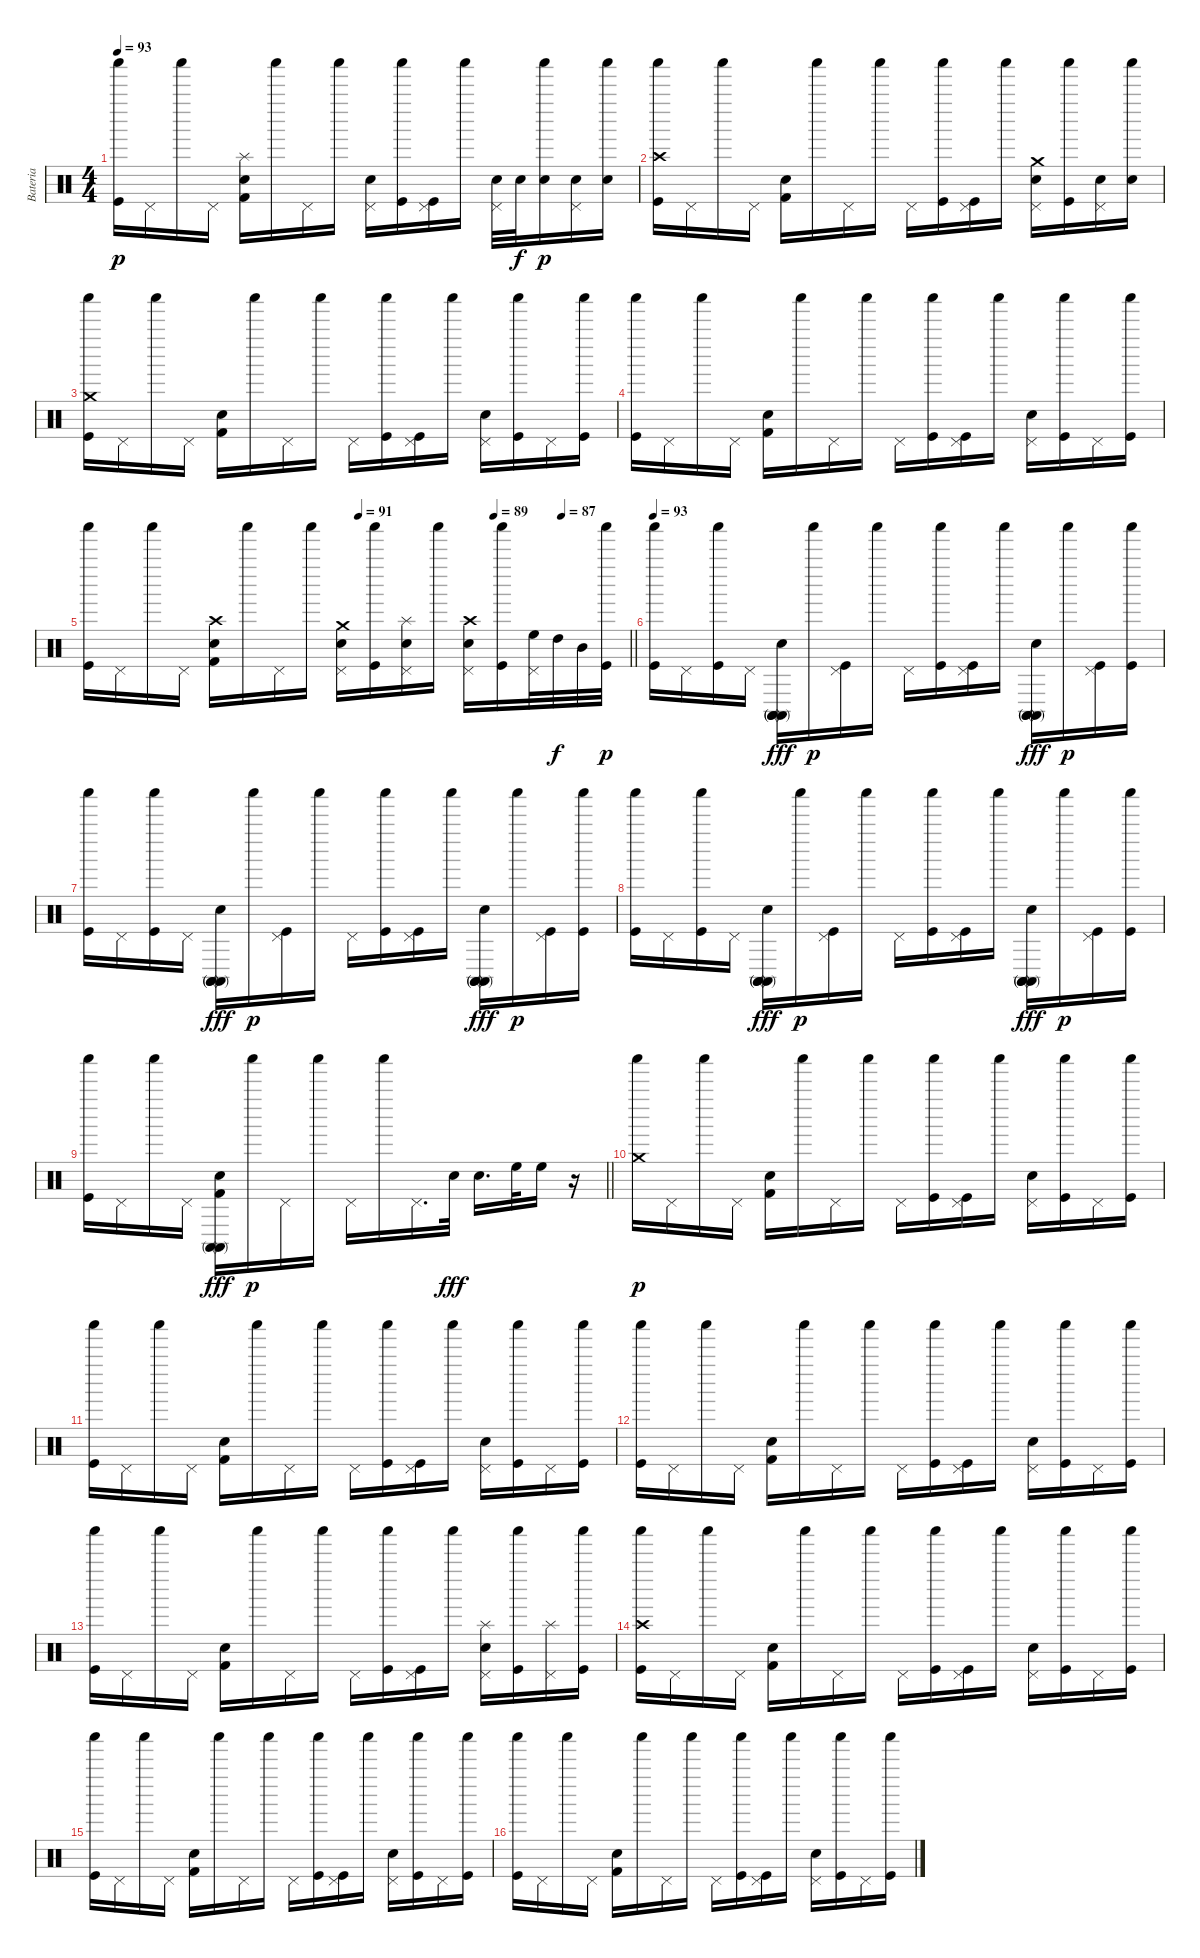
\track ("Bateria" "Bateria") {instrument percussion}
\staff {score}
\articulation defaults
\ts (4 4)
\tempo 93
\clef neutral
\ks c
("Kick (hit)" "Shaker (hit)").16{dy p} "Pedal Hi-Hat (hit)".16 "Shaker (hit)".16 "Pedal Hi-Hat (hit)".16 ("Electric Snare (hit)" "Kick (hit) 2" "Splash (hit)").16 "Shaker (hit)".16 "Pedal Hi-Hat (hit)".16 "Shaker (hit)".16 ("Electric Snare (hit)" "Pedal Hi-Hat (hit)").16 ("Kick (hit)" "Shaker (hit)").16 ("Kick (hit)" "Pedal Hi-Hat (hit)").16 "Shaker (hit)".16 ("Electric Snare (hit)" "Pedal Hi-Hat (hit)").32 "Electric Snare (hit)".32{dy f} ("Electric Snare (hit)" "Shaker (hit)").16{dy p} ("Electric Snare (hit)" "Pedal Hi-Hat (hit)").16 ("Electric Snare (hit)" "Shaker (hit)").16 |
("Kick (hit)" "Shaker (hit)" "Crash high (hit)").16 "Pedal Hi-Hat (hit)".16 "Shaker (hit)".16 "Pedal Hi-Hat (hit)".16 ("Electric Snare (hit)" "Kick (hit) 2").16 "Shaker (hit)".16 "Pedal Hi-Hat (hit)".16 "Shaker (hit)".16 "Pedal Hi-Hat (hit)".16 ("Kick (hit)" "Shaker (hit)").16 ("Kick (hit)" "Pedal Hi-Hat (hit)").16 "Shaker (hit)".16 ("Electric Snare (hit)" "Pedal Hi-Hat (hit)" "Crash medium (hit)").16 ("Kick (hit)" "Shaker (hit)").16 ("Electric Snare (hit)" "Pedal Hi-Hat (hit)").16 ("Electric Snare (hit)" "Shaker (hit)").16 |
("Kick (hit)" "Shaker (hit)" "Crash medium (hit)").16 "Pedal Hi-Hat (hit)".16 "Shaker (hit)".16 "Pedal Hi-Hat (hit)".16 ("Electric Snare (hit)" "Kick (hit) 2").16 "Shaker (hit)".16 "Pedal Hi-Hat (hit)".16 "Shaker (hit)".16 "Pedal Hi-Hat (hit)".16 ("Kick (hit)" "Shaker (hit)").16 ("Kick (hit)" "Pedal Hi-Hat (hit)").16 "Shaker (hit)".16 ("Electric Snare (hit)" "Pedal Hi-Hat (hit)").16 ("Kick (hit)" "Shaker (hit)").16 "Pedal Hi-Hat (hit)".16 ("Kick (hit)" "Shaker (hit)").16 |
("Kick (hit)" "Shaker (hit)").16 "Pedal Hi-Hat (hit)".16 "Shaker (hit)".16 "Pedal Hi-Hat (hit)".16 ("Electric Snare (hit)" "Kick (hit) 2").16 "Shaker (hit)".16 "Pedal Hi-Hat (hit)".16 "Shaker (hit)".16 "Pedal Hi-Hat (hit)".16 ("Kick (hit)" "Shaker (hit)").16 ("Kick (hit)" "Pedal Hi-Hat (hit)").16 "Shaker (hit)".16 ("Electric Snare (hit)" "Pedal Hi-Hat (hit)").16 ("Kick (hit)" "Shaker (hit)").16 "Pedal Hi-Hat (hit)".16 ("Kick (hit)" "Shaker (hit)").16 |
\tempo (91 0.5)
\tempo (89 0.75)
\tempo (87 0.875)
\barLineRight lightlight
("Kick (hit)" "Shaker (hit)").16 "Pedal Hi-Hat (hit)".16 "Shaker (hit)".16 "Pedal Hi-Hat (hit)".16 ("Electric Snare (hit)" "Kick (hit) 2" "Crash high (hit)").16 "Shaker (hit)".16 "Pedal Hi-Hat (hit)".16 "Shaker (hit)".16 ("Electric Snare (hit)" "Pedal Hi-Hat (hit)" "Crash medium (hit)").16 ("Kick (hit)" "Shaker (hit)").16 ("Electric Snare (hit)" "Pedal Hi-Hat (hit)" "Splash (hit)").16 "Shaker (hit)".16 ("Electric Snare (hit)" "Pedal Hi-Hat (hit)" "Crash high (hit)").16 ("Kick (hit)" "Shaker (hit)").16 ("High Floor Tom (hit)" "Pedal Hi-Hat (hit)").32 "High Tom (hit)".32{dy f} "Mid Tom (hit)".32 ("Kick (hit)" "Shaker (hit)").32{dy p} |
\tempo 93
("Kick (hit)" "Shaker (hit)").16{volume 13} "Pedal Hi-Hat (hit)".16 ("Kick (hit)" "Shaker (hit)").16 "Pedal Hi-Hat (hit)".16 ("Electric Snare (hit)" "Conga high (mute)" "Conga high (mute)" "Conga high (mute)").16{dy fff} "Shaker (hit)".16{dy p} ("Kick (hit)" "Pedal Hi-Hat (hit)").16 "Shaker (hit)".16 "Pedal Hi-Hat (hit)".16 ("Kick (hit)" "Shaker (hit)").16 ("Kick (hit)" "Pedal Hi-Hat (hit)").16 "Shaker (hit)".16 ("Electric Snare (hit)" "Conga high (mute)" "Conga high (mute)" "Conga high (mute)").16{dy fff} "Shaker (hit)".16{dy p} ("Kick (hit)" "Pedal Hi-Hat (hit)").16 ("Kick (hit)" "Shaker (hit)").16 |
("Kick (hit)" "Shaker (hit)").16{volume 13} "Pedal Hi-Hat (hit)".16 ("Kick (hit)" "Shaker (hit)").16 "Pedal Hi-Hat (hit)".16 ("Electric Snare (hit)" "Conga high (mute)" "Conga high (mute)" "Conga high (mute)").16{dy fff} "Shaker (hit)".16{dy p} ("Kick (hit)" "Pedal Hi-Hat (hit)").16 "Shaker (hit)".16 "Pedal Hi-Hat (hit)".16 ("Kick (hit)" "Shaker (hit)").16 ("Kick (hit)" "Pedal Hi-Hat (hit)").16 "Shaker (hit)".16 ("Electric Snare (hit)" "Conga high (mute)" "Conga high (mute)" "Conga high (mute)").16{dy fff} "Shaker (hit)".16{dy p} ("Kick (hit)" "Pedal Hi-Hat (hit)").16 ("Kick (hit)" "Shaker (hit)").16 |
("Kick (hit)" "Shaker (hit)").16{volume 13} "Pedal Hi-Hat (hit)".16 ("Kick (hit)" "Shaker (hit)").16 "Pedal Hi-Hat (hit)".16 ("Electric Snare (hit)" "Conga high (mute)" "Conga high (mute)" "Conga high (mute)").16{dy fff} "Shaker (hit)".16{dy p} ("Kick (hit)" "Pedal Hi-Hat (hit)").16 "Shaker (hit)".16 "Pedal Hi-Hat (hit)".16 ("Kick (hit)" "Shaker (hit)").16 ("Kick (hit)" "Pedal Hi-Hat (hit)").16 "Shaker (hit)".16 ("Electric Snare (hit)" "Conga high (mute)" "Conga high (mute)" "Conga high (mute)").16{dy fff} "Shaker (hit)".16{dy p} ("Kick (hit)" "Pedal Hi-Hat (hit)").16 ("Kick (hit)" "Shaker (hit)").16 |
\barLineRight lightlight
("Kick (hit)" "Shaker (hit)").16 "Pedal Hi-Hat (hit)".16 "Shaker (hit)".16 "Pedal Hi-Hat (hit)".16 ("Electric Snare (hit)" "Kick (hit) 2" "Conga high (mute)" "Conga high (mute)").16{dy fff} "Shaker (hit)".16{dy p} "Pedal Hi-Hat (hit)".16 "Shaker (hit)".16 "Pedal Hi-Hat (hit)".16 "Shaker (hit)".16 "Pedal Hi-Hat (hit)".16{d} "Electric Snare (hit)".32{dy fff volume 16} "Electric Snare (hit)".16{d} "High Floor Tom (hit)".32 "High Floor Tom (hit)".16 r.16 |
("Crash medium (hit)" "Shaker (hit)").16{dy p} "Pedal Hi-Hat (hit)".16 "Shaker (hit)".16 "Pedal Hi-Hat (hit)".16 ("Electric Snare (hit)" "Kick (hit) 2").16 "Shaker (hit)".16 "Pedal Hi-Hat (hit)".16 "Shaker (hit)".16 "Pedal Hi-Hat (hit)".16 ("Kick (hit)" "Shaker (hit)").16 ("Kick (hit)" "Pedal Hi-Hat (hit)").16 "Shaker (hit)".16 ("Electric Snare (hit)" "Pedal Hi-Hat (hit)").16 ("Kick (hit)" "Shaker (hit)").16 "Pedal Hi-Hat (hit)".16 ("Kick (hit)" "Shaker (hit)").16 |
("Kick (hit)" "Shaker (hit)").16 "Pedal Hi-Hat (hit)".16 "Shaker (hit)".16 "Pedal Hi-Hat (hit)".16 ("Electric Snare (hit)" "Kick (hit) 2").16 "Shaker (hit)".16 "Pedal Hi-Hat (hit)".16 "Shaker (hit)".16 "Pedal Hi-Hat (hit)".16 ("Kick (hit)" "Shaker (hit)").16 ("Kick (hit)" "Pedal Hi-Hat (hit)").16 "Shaker (hit)".16 ("Electric Snare (hit)" "Pedal Hi-Hat (hit)").16 ("Kick (hit)" "Shaker (hit)").16 "Pedal Hi-Hat (hit)".16 ("Kick (hit)" "Shaker (hit)").16 |
("Kick (hit)" "Shaker (hit)").16 "Pedal Hi-Hat (hit)".16 "Shaker (hit)".16 "Pedal Hi-Hat (hit)".16 ("Electric Snare (hit)" "Kick (hit) 2").16 "Shaker (hit)".16 "Pedal Hi-Hat (hit)".16 "Shaker (hit)".16 "Pedal Hi-Hat (hit)".16 ("Kick (hit)" "Shaker (hit)").16 ("Kick (hit)" "Pedal Hi-Hat (hit)").16 "Shaker (hit)".16 ("Electric Snare (hit)" "Pedal Hi-Hat (hit)").16 ("Kick (hit)" "Shaker (hit)").16 "Pedal Hi-Hat (hit)".16 ("Kick (hit)" "Shaker (hit)").16 |
("Kick (hit)" "Shaker (hit)").16 "Pedal Hi-Hat (hit)".16 "Shaker (hit)".16 "Pedal Hi-Hat (hit)".16 ("Electric Snare (hit)" "Kick (hit) 2").16 "Shaker (hit)".16 "Pedal Hi-Hat (hit)".16 "Shaker (hit)".16 "Pedal Hi-Hat (hit)".16 ("Kick (hit)" "Shaker (hit)").16 ("Kick (hit)" "Pedal Hi-Hat (hit)").16 "Shaker (hit)".16 ("Electric Snare (hit)" "Pedal Hi-Hat (hit)" "Splash (hit)").16 ("Kick (hit)" "Shaker (hit)").16 ("Pedal Hi-Hat (hit)" "Splash (hit)").16 ("Kick (hit)" "Shaker (hit)").16 |
("Kick (hit)" "Shaker (hit)" "Crash high (hit)").16 "Pedal Hi-Hat (hit)".16 "Shaker (hit)".16 "Pedal Hi-Hat (hit)".16 ("Electric Snare (hit)" "Kick (hit) 2").16 "Shaker (hit)".16 "Pedal Hi-Hat (hit)".16 "Shaker (hit)".16 "Pedal Hi-Hat (hit)".16 ("Kick (hit)" "Shaker (hit)").16 ("Kick (hit)" "Pedal Hi-Hat (hit)").16 "Shaker (hit)".16 ("Electric Snare (hit)" "Pedal Hi-Hat (hit)").16 ("Kick (hit)" "Shaker (hit)").16 "Pedal Hi-Hat (hit)".16 ("Kick (hit)" "Shaker (hit)").16 |
("Kick (hit)" "Shaker (hit)").16 "Pedal Hi-Hat (hit)".16 "Shaker (hit)".16 "Pedal Hi-Hat (hit)".16 ("Electric Snare (hit)" "Kick (hit) 2").16 "Shaker (hit)".16 "Pedal Hi-Hat (hit)".16 "Shaker (hit)".16 "Pedal Hi-Hat (hit)".16 ("Kick (hit)" "Shaker (hit)").16 ("Kick (hit)" "Pedal Hi-Hat (hit)").16 "Shaker (hit)".16 ("Electric Snare (hit)" "Pedal Hi-Hat (hit)").16 ("Kick (hit)" "Shaker (hit)").16 "Pedal Hi-Hat (hit)".16 ("Kick (hit)" "Shaker (hit)").16 |
("Kick (hit)" "Shaker (hit)").16 "Pedal Hi-Hat (hit)".16 "Shaker (hit)".16 "Pedal Hi-Hat (hit)".16 ("Electric Snare (hit)" "Kick (hit) 2").16 "Shaker (hit)".16 "Pedal Hi-Hat (hit)".16 "Shaker (hit)".16 "Pedal Hi-Hat (hit)".16 ("Kick (hit)" "Shaker (hit)").16 ("Kick (hit)" "Pedal Hi-Hat (hit)").16 "Shaker (hit)".16 ("Electric Snare (hit)" "Pedal Hi-Hat (hit)").16 ("Kick (hit)" "Shaker (hit)").16 "Pedal Hi-Hat (hit)".16 ("Kick (hit)" "Shaker (hit)").16
